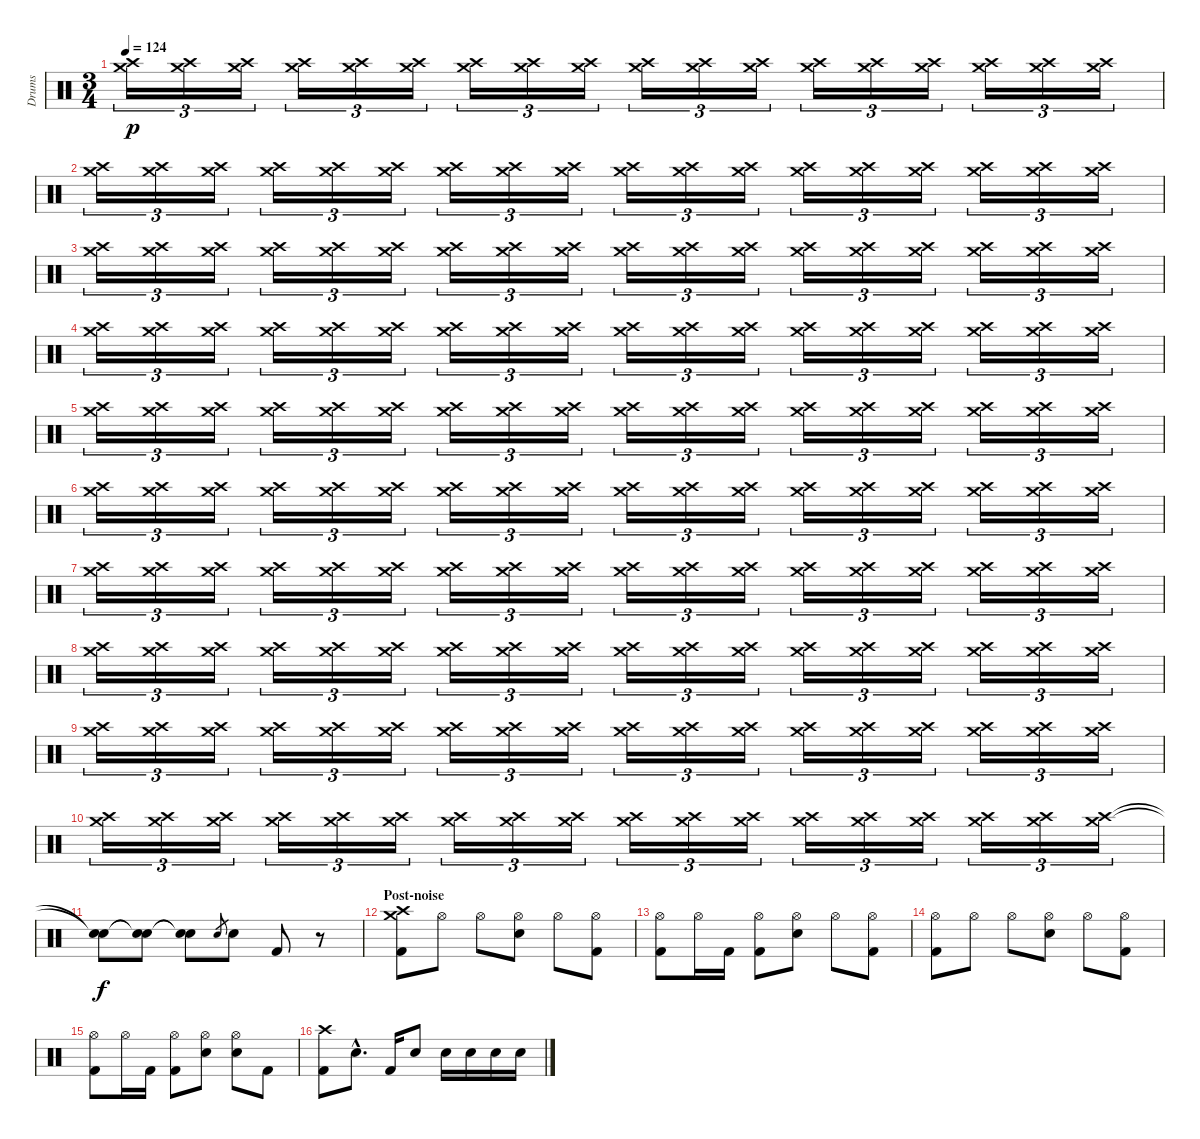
\track ("Drums" "Drums") {instrument percussion}
\staff {score}
\articulation defaults
\ts (3 4)
\tempo 124
\clef neutral
\ks c
("Crash medium (hit)" "Crash high (hit)").16{tu (3 2) dy p} ("Crash medium (hit)" "Crash high (hit)").16{tu (3 2)} ("Crash medium (hit)" "Crash high (hit)").16{tu (3 2)} ("Crash medium (hit)" "Crash high (hit)").16{tu (3 2)} ("Crash medium (hit)" "Crash high (hit)").16{tu (3 2)} ("Crash medium (hit)" "Crash high (hit)").16{tu (3 2)} ("Crash medium (hit)" "Crash high (hit)").16{tu (3 2)} ("Crash medium (hit)" "Crash high (hit)").16{tu (3 2)} ("Crash medium (hit)" "Crash high (hit)").16{tu (3 2)} ("Crash medium (hit)" "Crash high (hit)").16{tu (3 2)} ("Crash medium (hit)" "Crash high (hit)").16{tu (3 2)} ("Crash medium (hit)" "Crash high (hit)").16{tu (3 2)} ("Crash medium (hit)" "Crash high (hit)").16{tu (3 2)} ("Crash medium (hit)" "Crash high (hit)").16{tu (3 2)} ("Crash medium (hit)" "Crash high (hit)").16{tu (3 2)} ("Crash medium (hit)" "Crash high (hit)").16{tu (3 2)} ("Crash medium (hit)" "Crash high (hit)").16{tu (3 2)} ("Crash medium (hit)" "Crash high (hit)").16{tu (3 2)} |
("Crash medium (hit)" "Crash high (hit)").16{tu (3 2)} ("Crash medium (hit)" "Crash high (hit)").16{tu (3 2)} ("Crash medium (hit)" "Crash high (hit)").16{tu (3 2)} ("Crash medium (hit)" "Crash high (hit)").16{tu (3 2)} ("Crash medium (hit)" "Crash high (hit)").16{tu (3 2)} ("Crash medium (hit)" "Crash high (hit)").16{tu (3 2)} ("Crash medium (hit)" "Crash high (hit)").16{tu (3 2)} ("Crash medium (hit)" "Crash high (hit)").16{tu (3 2)} ("Crash medium (hit)" "Crash high (hit)").16{tu (3 2)} ("Crash medium (hit)" "Crash high (hit)").16{tu (3 2)} ("Crash medium (hit)" "Crash high (hit)").16{tu (3 2)} ("Crash medium (hit)" "Crash high (hit)").16{tu (3 2)} ("Crash medium (hit)" "Crash high (hit)").16{tu (3 2)} ("Crash medium (hit)" "Crash high (hit)").16{tu (3 2)} ("Crash medium (hit)" "Crash high (hit)").16{tu (3 2)} ("Crash medium (hit)" "Crash high (hit)").16{tu (3 2)} ("Crash medium (hit)" "Crash high (hit)").16{tu (3 2)} ("Crash medium (hit)" "Crash high (hit)").16{tu (3 2)} |
("Crash medium (hit)" "Crash high (hit)").16{tu (3 2)} ("Crash medium (hit)" "Crash high (hit)").16{tu (3 2)} ("Crash medium (hit)" "Crash high (hit)").16{tu (3 2)} ("Crash medium (hit)" "Crash high (hit)").16{tu (3 2)} ("Crash medium (hit)" "Crash high (hit)").16{tu (3 2)} ("Crash medium (hit)" "Crash high (hit)").16{tu (3 2)} ("Crash medium (hit)" "Crash high (hit)").16{tu (3 2)} ("Crash medium (hit)" "Crash high (hit)").16{tu (3 2)} ("Crash medium (hit)" "Crash high (hit)").16{tu (3 2)} ("Crash medium (hit)" "Crash high (hit)").16{tu (3 2)} ("Crash medium (hit)" "Crash high (hit)").16{tu (3 2)} ("Crash medium (hit)" "Crash high (hit)").16{tu (3 2)} ("Crash medium (hit)" "Crash high (hit)").16{tu (3 2)} ("Crash medium (hit)" "Crash high (hit)").16{tu (3 2)} ("Crash medium (hit)" "Crash high (hit)").16{tu (3 2)} ("Crash medium (hit)" "Crash high (hit)").16{tu (3 2)} ("Crash medium (hit)" "Crash high (hit)").16{tu (3 2)} ("Crash medium (hit)" "Crash high (hit)").16{tu (3 2)} |
("Crash medium (hit)" "Crash high (hit)").16{tu (3 2)} ("Crash medium (hit)" "Crash high (hit)").16{tu (3 2)} ("Crash medium (hit)" "Crash high (hit)").16{tu (3 2)} ("Crash medium (hit)" "Crash high (hit)").16{tu (3 2)} ("Crash medium (hit)" "Crash high (hit)").16{tu (3 2)} ("Crash medium (hit)" "Crash high (hit)").16{tu (3 2)} ("Crash medium (hit)" "Crash high (hit)").16{tu (3 2)} ("Crash medium (hit)" "Crash high (hit)").16{tu (3 2)} ("Crash medium (hit)" "Crash high (hit)").16{tu (3 2)} ("Crash medium (hit)" "Crash high (hit)").16{tu (3 2)} ("Crash medium (hit)" "Crash high (hit)").16{tu (3 2)} ("Crash medium (hit)" "Crash high (hit)").16{tu (3 2)} ("Crash medium (hit)" "Crash high (hit)").16{tu (3 2)} ("Crash medium (hit)" "Crash high (hit)").16{tu (3 2)} ("Crash medium (hit)" "Crash high (hit)").16{tu (3 2)} ("Crash medium (hit)" "Crash high (hit)").16{tu (3 2)} ("Crash medium (hit)" "Crash high (hit)").16{tu (3 2)} ("Crash medium (hit)" "Crash high (hit)").16{tu (3 2)} |
("Crash medium (hit)" "Crash high (hit)").16{tu (3 2)} ("Crash medium (hit)" "Crash high (hit)").16{tu (3 2)} ("Crash medium (hit)" "Crash high (hit)").16{tu (3 2)} ("Crash medium (hit)" "Crash high (hit)").16{tu (3 2)} ("Crash medium (hit)" "Crash high (hit)").16{tu (3 2)} ("Crash medium (hit)" "Crash high (hit)").16{tu (3 2)} ("Crash medium (hit)" "Crash high (hit)").16{tu (3 2)} ("Crash medium (hit)" "Crash high (hit)").16{tu (3 2)} ("Crash medium (hit)" "Crash high (hit)").16{tu (3 2)} ("Crash medium (hit)" "Crash high (hit)").16{tu (3 2)} ("Crash medium (hit)" "Crash high (hit)").16{tu (3 2)} ("Crash medium (hit)" "Crash high (hit)").16{tu (3 2)} ("Crash medium (hit)" "Crash high (hit)").16{tu (3 2)} ("Crash medium (hit)" "Crash high (hit)").16{tu (3 2)} ("Crash medium (hit)" "Crash high (hit)").16{tu (3 2)} ("Crash medium (hit)" "Crash high (hit)").16{tu (3 2)} ("Crash medium (hit)" "Crash high (hit)").16{tu (3 2)} ("Crash medium (hit)" "Crash high (hit)").16{tu (3 2)} |
("Crash medium (hit)" "Crash high (hit)").16{tu (3 2)} ("Crash medium (hit)" "Crash high (hit)").16{tu (3 2)} ("Crash medium (hit)" "Crash high (hit)").16{tu (3 2)} ("Crash medium (hit)" "Crash high (hit)").16{tu (3 2)} ("Crash medium (hit)" "Crash high (hit)").16{tu (3 2)} ("Crash medium (hit)" "Crash high (hit)").16{tu (3 2)} ("Crash medium (hit)" "Crash high (hit)").16{tu (3 2)} ("Crash medium (hit)" "Crash high (hit)").16{tu (3 2)} ("Crash medium (hit)" "Crash high (hit)").16{tu (3 2)} ("Crash medium (hit)" "Crash high (hit)").16{tu (3 2)} ("Crash medium (hit)" "Crash high (hit)").16{tu (3 2)} ("Crash medium (hit)" "Crash high (hit)").16{tu (3 2)} ("Crash medium (hit)" "Crash high (hit)").16{tu (3 2)} ("Crash medium (hit)" "Crash high (hit)").16{tu (3 2)} ("Crash medium (hit)" "Crash high (hit)").16{tu (3 2)} ("Crash medium (hit)" "Crash high (hit)").16{tu (3 2)} ("Crash medium (hit)" "Crash high (hit)").16{tu (3 2)} ("Crash medium (hit)" "Crash high (hit)").16{tu (3 2)} |
("Crash medium (hit)" "Crash high (hit)").16{tu (3 2)} ("Crash medium (hit)" "Crash high (hit)").16{tu (3 2)} ("Crash medium (hit)" "Crash high (hit)").16{tu (3 2)} ("Crash medium (hit)" "Crash high (hit)").16{tu (3 2)} ("Crash medium (hit)" "Crash high (hit)").16{tu (3 2)} ("Crash medium (hit)" "Crash high (hit)").16{tu (3 2)} ("Crash medium (hit)" "Crash high (hit)").16{tu (3 2)} ("Crash medium (hit)" "Crash high (hit)").16{tu (3 2)} ("Crash medium (hit)" "Crash high (hit)").16{tu (3 2)} ("Crash medium (hit)" "Crash high (hit)").16{tu (3 2)} ("Crash medium (hit)" "Crash high (hit)").16{tu (3 2)} ("Crash medium (hit)" "Crash high (hit)").16{tu (3 2)} ("Crash medium (hit)" "Crash high (hit)").16{tu (3 2)} ("Crash medium (hit)" "Crash high (hit)").16{tu (3 2)} ("Crash medium (hit)" "Crash high (hit)").16{tu (3 2)} ("Crash medium (hit)" "Crash high (hit)").16{tu (3 2)} ("Crash medium (hit)" "Crash high (hit)").16{tu (3 2)} ("Crash medium (hit)" "Crash high (hit)").16{tu (3 2)} |
("Crash medium (hit)" "Crash high (hit)").16{tu (3 2)} ("Crash medium (hit)" "Crash high (hit)").16{tu (3 2)} ("Crash medium (hit)" "Crash high (hit)").16{tu (3 2)} ("Crash medium (hit)" "Crash high (hit)").16{tu (3 2)} ("Crash medium (hit)" "Crash high (hit)").16{tu (3 2)} ("Crash medium (hit)" "Crash high (hit)").16{tu (3 2)} ("Crash medium (hit)" "Crash high (hit)").16{tu (3 2)} ("Crash medium (hit)" "Crash high (hit)").16{tu (3 2)} ("Crash medium (hit)" "Crash high (hit)").16{tu (3 2)} ("Crash medium (hit)" "Crash high (hit)").16{tu (3 2)} ("Crash medium (hit)" "Crash high (hit)").16{tu (3 2)} ("Crash medium (hit)" "Crash high (hit)").16{tu (3 2)} ("Crash medium (hit)" "Crash high (hit)").16{tu (3 2)} ("Crash medium (hit)" "Crash high (hit)").16{tu (3 2)} ("Crash medium (hit)" "Crash high (hit)").16{tu (3 2)} ("Crash medium (hit)" "Crash high (hit)").16{tu (3 2)} ("Crash medium (hit)" "Crash high (hit)").16{tu (3 2)} ("Crash medium (hit)" "Crash high (hit)").16{tu (3 2)} |
("Crash medium (hit)" "Crash high (hit)").16{tu (3 2)} ("Crash medium (hit)" "Crash high (hit)").16{tu (3 2)} ("Crash medium (hit)" "Crash high (hit)").16{tu (3 2)} ("Crash medium (hit)" "Crash high (hit)").16{tu (3 2)} ("Crash medium (hit)" "Crash high (hit)").16{tu (3 2)} ("Crash medium (hit)" "Crash high (hit)").16{tu (3 2)} ("Crash medium (hit)" "Crash high (hit)").16{tu (3 2)} ("Crash medium (hit)" "Crash high (hit)").16{tu (3 2)} ("Crash medium (hit)" "Crash high (hit)").16{tu (3 2)} ("Crash medium (hit)" "Crash high (hit)").16{tu (3 2)} ("Crash medium (hit)" "Crash high (hit)").16{tu (3 2)} ("Crash medium (hit)" "Crash high (hit)").16{tu (3 2)} ("Crash medium (hit)" "Crash high (hit)").16{tu (3 2)} ("Crash medium (hit)" "Crash high (hit)").16{tu (3 2)} ("Crash medium (hit)" "Crash high (hit)").16{tu (3 2)} ("Crash medium (hit)" "Crash high (hit)").16{tu (3 2)} ("Crash medium (hit)" "Crash high (hit)").16{tu (3 2)} ("Crash medium (hit)" "Crash high (hit)").16{tu (3 2)} |
("Crash medium (hit)" "Crash high (hit)").16{tu (3 2)} ("Crash medium (hit)" "Crash high (hit)").16{tu (3 2)} ("Crash medium (hit)" "Crash high (hit)").16{tu (3 2)} ("Crash medium (hit)" "Crash high (hit)").16{tu (3 2)} ("Crash medium (hit)" "Crash high (hit)").16{tu (3 2)} ("Crash medium (hit)" "Crash high (hit)").16{tu (3 2)} ("Crash medium (hit)" "Crash high (hit)").16{tu (3 2)} ("Crash medium (hit)" "Crash high (hit)").16{tu (3 2)} ("Crash medium (hit)" "Crash high (hit)").16{tu (3 2)} ("Crash medium (hit)" "Crash high (hit)").16{tu (3 2)} ("Crash medium (hit)" "Crash high (hit)").16{tu (3 2)} ("Crash medium (hit)" "Crash high (hit)").16{tu (3 2)} ("Crash medium (hit)" "Crash high (hit)").16{tu (3 2)} ("Crash medium (hit)" "Crash high (hit)").16{tu (3 2)} ("Crash medium (hit)" "Crash high (hit)").16{tu (3 2)} ("Crash medium (hit)" "Crash high (hit)").16{tu (3 2)} ("Crash medium (hit)" "Crash high (hit)").16{tu (3 2)} ("Crash medium (hit)" "Crash high (hit)").16{tu (3 2)} |
("Snare (hit)"{t} "Snare (hit)"{t}).8{dy f} ("Snare (hit)"{t} "Snare (hit)"{t}).8 ("Snare (hit)"{t} "Snare (hit)"{t}).8 "Electric Snare (hit)".8{gr} "Electric Snare (hit)".8 "Kick (hit) 2".8 r.8 |
\section ("" "Post-noise")
("Crash medium (hit)" "Crash high (hit)" "Kick (hit) 2").8 "Hi-Hat (open)".8 "Hi-Hat (open)".8 ("Hi-Hat (open)" "Electric Snare (hit)").8 "Hi-Hat (open)".8 ("Hi-Hat (open)" "Kick (hit) 2").8 |
("Hi-Hat (open)" "Kick (hit) 2").8 "Hi-Hat (open)".16 "Kick (hit) 2".16 ("Hi-Hat (open)" "Kick (hit) 2").8 ("Hi-Hat (open)" "Electric Snare (hit)").8 "Hi-Hat (open)".8 ("Hi-Hat (open)" "Kick (hit) 2").8 |
("Hi-Hat (open)" "Kick (hit) 2").8 "Hi-Hat (open)".8 "Hi-Hat (open)".8 ("Hi-Hat (open)" "Electric Snare (hit)").8 "Hi-Hat (open)".8 ("Hi-Hat (open)" "Kick (hit) 2").8 |
("Hi-Hat (open)" "Kick (hit) 2").8 "Hi-Hat (open)".16 "Kick (hit) 2".16 ("Hi-Hat (open)" "Kick (hit) 2").8 ("Hi-Hat (open)" "Electric Snare (hit)").8 ("Hi-Hat (open)" "Electric Snare (hit)").8 "Kick (hit) 2".8 |
("Crash high (hit)" "Kick (hit) 2").8 "Electric Snare (hit)"{hac}.8{d} "Kick (hit) 2".16 "Electric Snare (hit)".8 "Electric Snare (hit)".16 "Electric Snare (hit)".16 "Electric Snare (hit)".16 "Electric Snare (hit)".16
